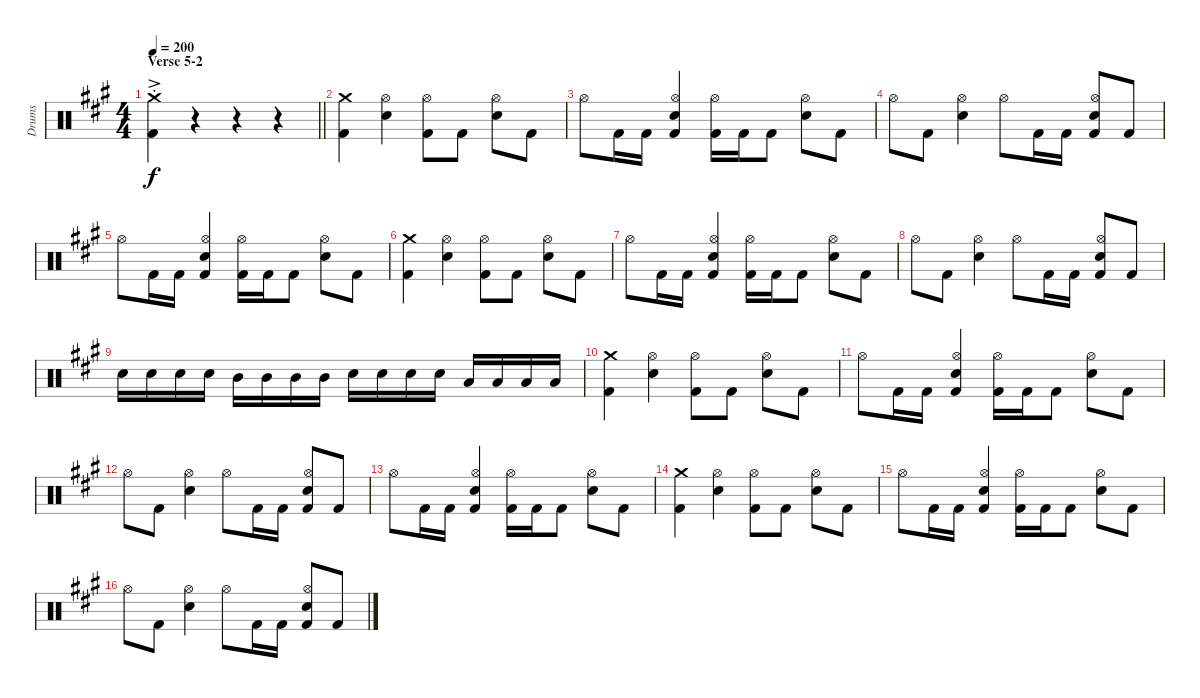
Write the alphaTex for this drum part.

\track ("Drums" "Drums") {instrument percussion}
\staff {score}
\articulation defaults
\ts (4 4)
\section ("" "Verse 5-2")
\tempo 200
\clef neutral
\barLineRight lightlight
\ks a
("Crash medium (hit)"{ac st} "Kick (hit) 2").4{dy f} r.4 r.4 r.4 |
("Crash medium (hit)" "Kick (hit) 2").4 ("Hi-Hat (open)" "Snare (hit) 2").4 ("Hi-Hat (open)" "Kick (hit) 2").8 "Kick (hit) 2".8 ("Hi-Hat (open)" "Snare (hit) 2").8 "Kick (hit) 2".8 |
"Hi-Hat (open)".8 "Kick (hit) 2".16 "Kick (hit) 2".16 ("Hi-Hat (open)" "Snare (hit) 2" "Kick (hit) 2").4 ("Hi-Hat (open)" "Kick (hit) 2").16 "Kick (hit) 2".16 "Kick (hit) 2".8 ("Hi-Hat (open)" "Snare (hit) 2").8 "Kick (hit) 2".8 |
"Hi-Hat (open)".8 "Kick (hit) 2".8 ("Hi-Hat (open)" "Snare (hit) 2").4 "Hi-Hat (open)".8 "Kick (hit) 2".16 "Kick (hit) 2".16 ("Hi-Hat (open)" "Snare (hit) 2" "Kick (hit) 2").8 "Kick (hit) 2".8 |
"Hi-Hat (open)".8 "Kick (hit) 2".16 "Kick (hit) 2".16 ("Hi-Hat (open)" "Snare (hit) 2" "Kick (hit) 2").4 ("Hi-Hat (open)" "Kick (hit) 2").16 "Kick (hit) 2".16 "Kick (hit) 2".8 ("Hi-Hat (open)" "Snare (hit) 2").8 "Kick (hit) 2".8 |
("Crash medium (hit)" "Kick (hit) 2").4 ("Hi-Hat (open)" "Snare (hit) 2").4 ("Hi-Hat (open)" "Kick (hit) 2").8 "Kick (hit) 2".8 ("Hi-Hat (open)" "Snare (hit) 2").8 "Kick (hit) 2".8 |
"Hi-Hat (open)".8 "Kick (hit) 2".16 "Kick (hit) 2".16 ("Hi-Hat (open)" "Snare (hit) 2" "Kick (hit) 2").4 ("Hi-Hat (open)" "Kick (hit) 2").16 "Kick (hit) 2".16 "Kick (hit) 2".8 ("Hi-Hat (open)" "Snare (hit) 2").8 "Kick (hit) 2".8 |
"Hi-Hat (open)".8 "Kick (hit) 2".8 ("Hi-Hat (open)" "Snare (hit) 2").4 "Hi-Hat (open)".8 "Kick (hit) 2".16 "Kick (hit) 2".16 ("Hi-Hat (open)" "Snare (hit) 2" "Kick (hit) 2").8 "Kick (hit) 2".8 |
"Snare (hit) 2".16 "Snare (hit) 2".16 "Snare (hit) 2".16 "Snare (hit) 2".16 "Mid Tom (hit)".16 "Mid Tom (hit)".16 "Mid Tom (hit)".16 "Mid Tom (hit)".16 "Snare (hit) 2".16 "Snare (hit) 2".16 "Snare (hit) 2".16 "Snare (hit) 2".16 "Low Tom (hit)".16 "Low Tom (hit)".16 "Low Tom (hit)".16 "Low Tom (hit)".16 |
("Crash medium (hit)" "Kick (hit) 2").4 ("Hi-Hat (open)" "Snare (hit) 2").4 ("Hi-Hat (open)" "Kick (hit) 2").8 "Kick (hit) 2".8 ("Hi-Hat (open)" "Snare (hit) 2").8 "Kick (hit) 2".8 |
"Hi-Hat (open)".8 "Kick (hit) 2".16 "Kick (hit) 2".16 ("Hi-Hat (open)" "Snare (hit) 2" "Kick (hit) 2").4 ("Hi-Hat (open)" "Kick (hit) 2").16 "Kick (hit) 2".16 "Kick (hit) 2".8 ("Hi-Hat (open)" "Snare (hit) 2").8 "Kick (hit) 2".8 |
"Hi-Hat (open)".8 "Kick (hit) 2".8 ("Hi-Hat (open)" "Snare (hit) 2").4 "Hi-Hat (open)".8 "Kick (hit) 2".16 "Kick (hit) 2".16 ("Hi-Hat (open)" "Snare (hit) 2" "Kick (hit) 2").8 "Kick (hit) 2".8 |
"Hi-Hat (open)".8 "Kick (hit) 2".16 "Kick (hit) 2".16 ("Hi-Hat (open)" "Snare (hit) 2" "Kick (hit) 2").4 ("Hi-Hat (open)" "Kick (hit) 2").16 "Kick (hit) 2".16 "Kick (hit) 2".8 ("Hi-Hat (open)" "Snare (hit) 2").8 "Kick (hit) 2".8 |
("Crash medium (hit)" "Kick (hit) 2").4 ("Hi-Hat (open)" "Snare (hit) 2").4 ("Hi-Hat (open)" "Kick (hit) 2").8 "Kick (hit) 2".8 ("Hi-Hat (open)" "Snare (hit) 2").8 "Kick (hit) 2".8 |
"Hi-Hat (open)".8 "Kick (hit) 2".16 "Kick (hit) 2".16 ("Hi-Hat (open)" "Snare (hit) 2" "Kick (hit) 2").4 ("Hi-Hat (open)" "Kick (hit) 2").16 "Kick (hit) 2".16 "Kick (hit) 2".8 ("Hi-Hat (open)" "Snare (hit) 2").8 "Kick (hit) 2".8 |
"Hi-Hat (open)".8 "Kick (hit) 2".8 ("Hi-Hat (open)" "Snare (hit) 2").4 "Hi-Hat (open)".8 "Kick (hit) 2".16 "Kick (hit) 2".16 ("Hi-Hat (open)" "Snare (hit) 2" "Kick (hit) 2").8 "Kick (hit) 2".8
